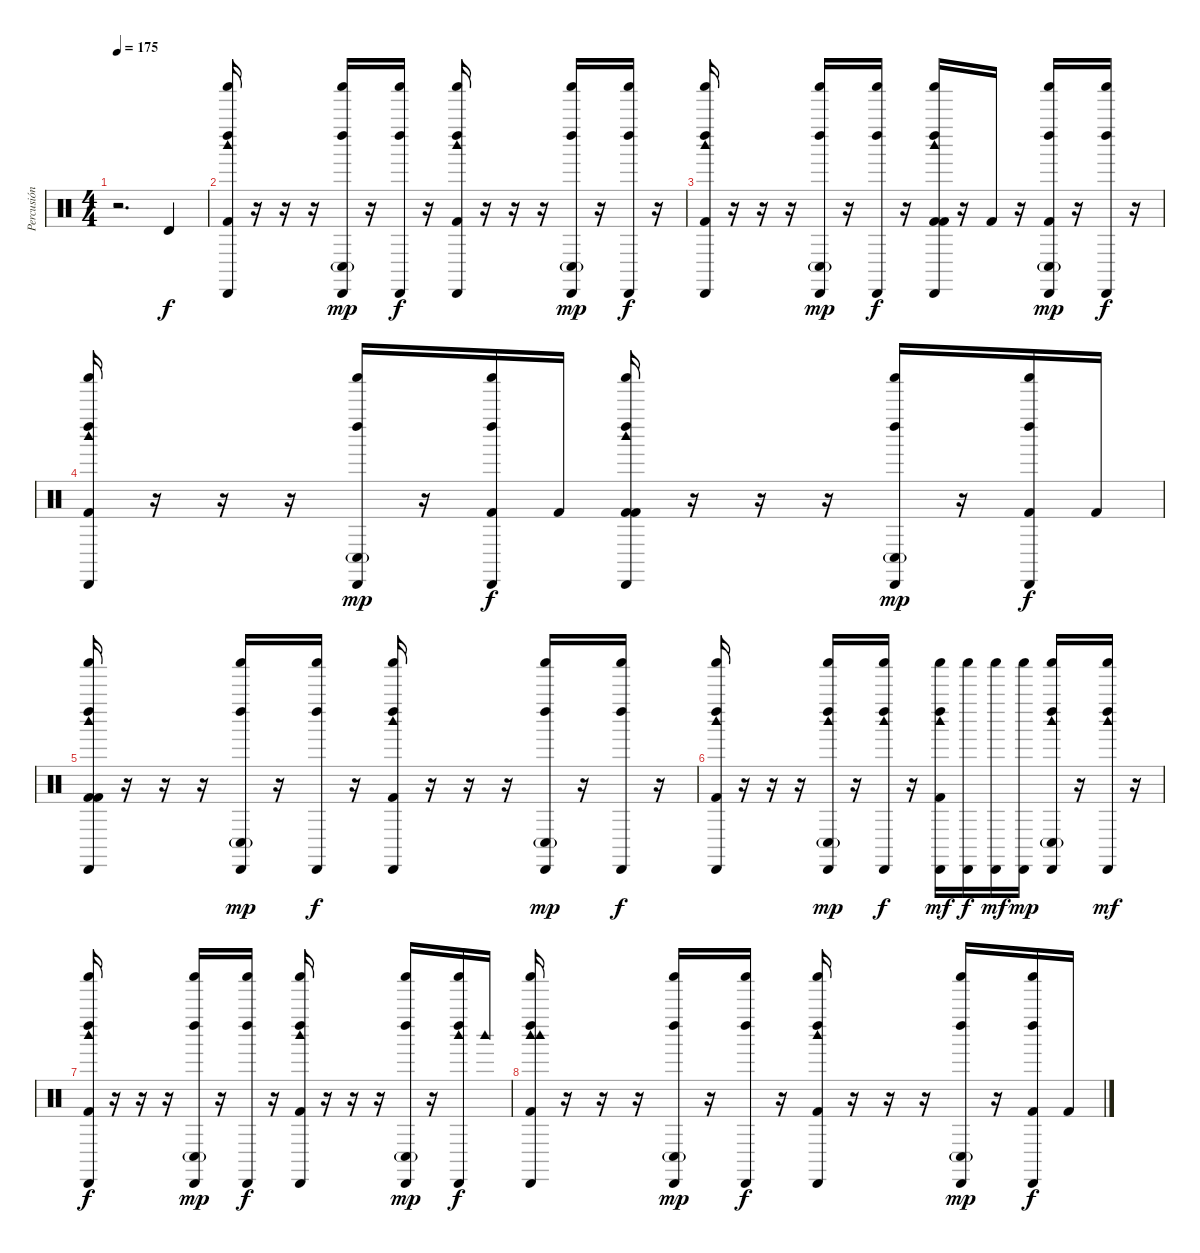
\track ("Percusión" "Percusión") {instrument percussion}
\staff {score}
\articulation defaults
\ts (4 4)
\tempo 175
\clef neutral
\ks c
r.2{d dy f} "Timbale high (hit)".4 |
("Cabasa (hit)" "Shaker (hit)" "Kick (hit) 2" "Left Maraca (hit)" "Woodblock high (hit)").16 r.16 r.16 r.16 ("Cabasa (hit)" "Shaker (hit)" "Conga low (hit)"{g} "Left Maraca (hit)").16{dy mp} r.16 ("Cabasa (hit)" "Shaker (hit)" "Left Maraca (hit)").16{dy f} r.16 ("Cabasa (hit)" "Shaker (hit)" "Kick (hit) 2" "Left Maraca (hit)" "Woodblock high (hit)").16 r.16 r.16 r.16 ("Cabasa (hit)" "Shaker (hit)" "Conga low (hit)"{g} "Left Maraca (hit)").16{dy mp} r.16 ("Cabasa (hit)" "Shaker (hit)" "Left Maraca (hit)").16{dy f} r.16 |
("Cabasa (hit)" "Shaker (hit)" "Kick (hit) 2" "Left Maraca (hit)" "Woodblock high (hit)").16 r.16 r.16 r.16 ("Cabasa (hit)" "Shaker (hit)" "Conga low (hit)"{g} "Left Maraca (hit)").16{dy mp} r.16 ("Cabasa (hit)" "Shaker (hit)" "Left Maraca (hit)").16{dy f} r.16 ("Kick (hit) 2" "Cabasa (hit)" "Shaker (hit)" "Kick (hit) 2" "Left Maraca (hit)" "Woodblock high (hit)").16 r.16 "Kick (hit) 2".16 r.16 ("Kick (hit) 2" "Cabasa (hit)" "Shaker (hit)" "Conga low (hit)"{g} "Left Maraca (hit)").16{dy mp} r.16 ("Cabasa (hit)" "Shaker (hit)" "Left Maraca (hit)").16{dy f} r.16 |
("Cabasa (hit)" "Shaker (hit)" "Kick (hit) 2" "Left Maraca (hit)" "Woodblock high (hit)").16 r.16 r.16 r.16 ("Cabasa (hit)" "Shaker (hit)" "Conga low (hit)"{g} "Left Maraca (hit)").16{dy mp} r.16 ("Kick (hit) 2" "Cabasa (hit)" "Shaker (hit)" "Left Maraca (hit)").16{dy f} "Kick (hit) 2".16 ("Kick (hit) 2" "Cabasa (hit)" "Shaker (hit)" "Kick (hit) 2" "Left Maraca (hit)" "Woodblock high (hit)").16 r.16 r.16 r.16 ("Cabasa (hit)" "Shaker (hit)" "Conga low (hit)"{g} "Left Maraca (hit)").16{dy mp} r.16 ("Kick (hit) 2" "Cabasa (hit)" "Shaker (hit)" "Left Maraca (hit)").16{dy f} "Kick (hit) 2".16 |
("Kick (hit) 2" "Cabasa (hit)" "Shaker (hit)" "Kick (hit) 2" "Left Maraca (hit)" "Woodblock high (hit)").16 r.16 r.16 r.16 ("Cabasa (hit)" "Shaker (hit)" "Conga low (hit)"{g} "Left Maraca (hit)").16{dy mp} r.16 ("Cabasa (hit)" "Shaker (hit)" "Left Maraca (hit)").16{dy f} r.16 ("Cabasa (hit)" "Shaker (hit)" "Kick (hit) 2" "Left Maraca (hit)" "Woodblock high (hit)").16 r.16 r.16 r.16 ("Cabasa (hit)" "Shaker (hit)" "Conga low (hit)"{g} "Left Maraca (hit)").16{dy mp} r.16 ("Cabasa (hit)" "Shaker (hit)" "Left Maraca (hit)").16{dy f} r.16 |
("Cabasa (hit)" "Shaker (hit)" "Kick (hit) 2" "Left Maraca (hit)" "Woodblock high (hit)").16 r.16 r.16 r.16 ("Cabasa (hit)" "Shaker (hit)" "Conga low (hit)"{g} "Left Maraca (hit)" "Woodblock high (hit)").16{dy mp} r.16 ("Cabasa (hit)" "Shaker (hit)" "Left Maraca (hit)" "Woodblock high (hit)").16{dy f} r.16 ("Cabasa (hit)" "Shaker (hit)" "Left Maraca (hit)" "Woodblock high (hit)" "Kick (hit) 2").16{dy mf} ("Cabasa (hit)" "Shaker (hit)").16{dy f} ("Cabasa (hit)" "Shaker (hit)").16{dy mf} ("Cabasa (hit)" "Shaker (hit)").16{dy mp} ("Cabasa (hit)" "Shaker (hit)" "Left Maraca (hit)" "Woodblock high (hit)" "Conga low (hit)"{g}).16 r.16 ("Cabasa (hit)" "Shaker (hit)" "Left Maraca (hit)" "Woodblock high (hit)").16{dy mf} r.16 |
("Cabasa (hit)" "Shaker (hit)" "Kick (hit) 2" "Left Maraca (hit)" "Woodblock high (hit)").16{dy f} r.16 r.16 r.16 ("Cabasa (hit)" "Shaker (hit)" "Conga low (hit)"{g} "Left Maraca (hit)").16{dy mp} r.16 ("Cabasa (hit)" "Shaker (hit)" "Left Maraca (hit)").16{dy f} r.16 ("Cabasa (hit)" "Shaker (hit)" "Kick (hit) 2" "Left Maraca (hit)" "Woodblock high (hit)").16 r.16 r.16 r.16 ("Cabasa (hit)" "Shaker (hit)" "Conga low (hit)"{g} "Left Maraca (hit)").16{dy mp} r.16 ("Woodblock high (hit)" "Cabasa (hit)" "Shaker (hit)" "Left Maraca (hit)").16{dy f} "Woodblock high (hit)".16 |
("Woodblock high (hit)" "Cabasa (hit)" "Shaker (hit)" "Kick (hit) 2" "Left Maraca (hit)" "Woodblock high (hit)").16 r.16 r.16 r.16 ("Cabasa (hit)" "Shaker (hit)" "Conga low (hit)"{g} "Left Maraca (hit)").16{dy mp} r.16 ("Cabasa (hit)" "Shaker (hit)" "Left Maraca (hit)").16{dy f} r.16 ("Cabasa (hit)" "Shaker (hit)" "Kick (hit) 2" "Left Maraca (hit)" "Woodblock high (hit)").16 r.16 r.16 r.16 ("Cabasa (hit)" "Shaker (hit)" "Conga low (hit)"{g} "Left Maraca (hit)").16{dy mp} r.16 ("Kick (hit) 2" "Cabasa (hit)" "Shaker (hit)" "Left Maraca (hit)").16{dy f} "Kick (hit) 2".16
